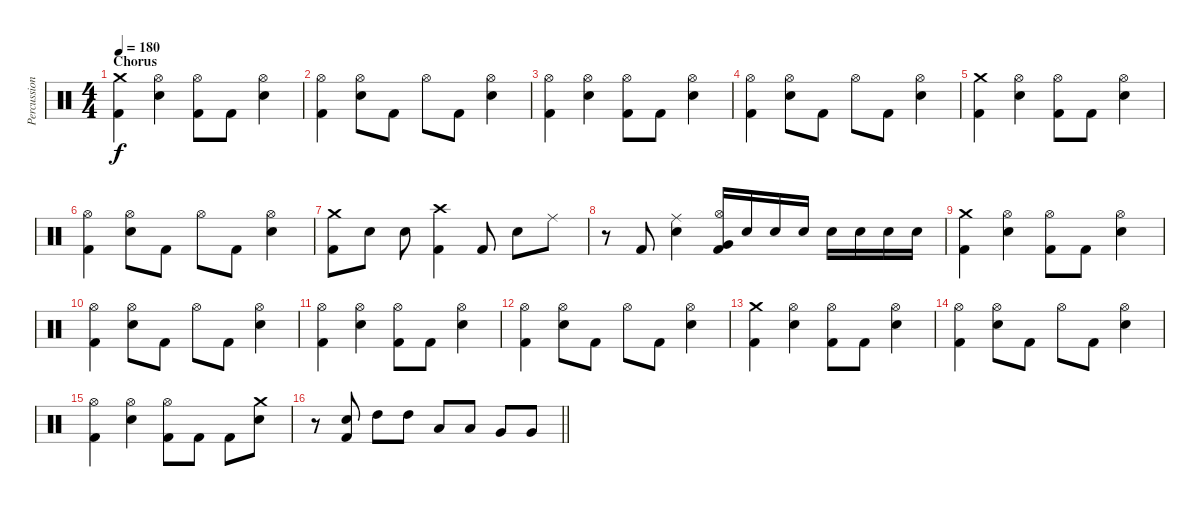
\track ("Percussion" "Percussion") {instrument percussion}
\staff {score}
\articulation defaults
\ts (4 4)
\section ("" "Chorus")
\tempo 180
\clef neutral
\ks c
("Crash medium (hit)" "Kick (hit) 2").4{dy f} ("Hi-Hat (open)" "Snare (hit) 2").4 ("Hi-Hat (open)" "Kick (hit) 2").8 "Kick (hit) 2".8 ("Hi-Hat (open)" "Snare (hit) 2").4 |
("Hi-Hat (open)" "Kick (hit) 2").4 ("Hi-Hat (open)" "Snare (hit) 2").8 "Kick (hit) 2".8 "Hi-Hat (open)".8 "Kick (hit) 2".8 ("Hi-Hat (open)" "Snare (hit) 2").4 |
("Hi-Hat (open)" "Kick (hit) 2").4 ("Hi-Hat (open)" "Snare (hit) 2").4 ("Hi-Hat (open)" "Kick (hit) 2").8 "Kick (hit) 2".8 ("Hi-Hat (open)" "Snare (hit) 2").4 |
("Hi-Hat (open)" "Kick (hit) 2").4 ("Hi-Hat (open)" "Snare (hit) 2").8 "Kick (hit) 2".8 "Hi-Hat (open)".8 "Kick (hit) 2".8 ("Hi-Hat (open)" "Snare (hit) 2").4 |
("Crash medium (hit)" "Kick (hit) 2").4 ("Hi-Hat (open)" "Snare (hit) 2").4 ("Hi-Hat (open)" "Kick (hit) 2").8 "Kick (hit) 2".8 ("Hi-Hat (open)" "Snare (hit) 2").4 |
("Hi-Hat (open)" "Kick (hit) 2").4 ("Hi-Hat (open)" "Snare (hit) 2").8 "Kick (hit) 2".8 "Hi-Hat (open)".8 "Kick (hit) 2".8 ("Hi-Hat (open)" "Snare (hit) 2").4 |
("Crash medium (hit)" "Kick (hit) 2").8 "Snare (hit) 2".8 "Snare (hit) 2".8 ("Crash high (hit)" "Kick (hit) 2").4 "Kick (hit) 2".8 "Snare (hit) 2".8 "Ride (middle)".8 |
r.8 "Kick (hit) 2".8 ("Ride (middle)" "Snare (hit) 2").4 ("Hi-Hat (open)" "Very Low Tom (hit)" "Kick (hit) 2").16 "Snare (hit) 2".16 "Snare (hit) 2".16 "Snare (hit) 2".16 "Snare (hit) 2".16 "Snare (hit) 2".16 "Snare (hit) 2".16 "Snare (hit) 2".16 |
("Crash medium (hit)" "Kick (hit) 2").4 ("Hi-Hat (open)" "Snare (hit) 2").4 ("Hi-Hat (open)" "Kick (hit) 2").8 "Kick (hit) 2".8 ("Hi-Hat (open)" "Snare (hit) 2").4 |
("Hi-Hat (open)" "Kick (hit) 2").4 ("Hi-Hat (open)" "Snare (hit) 2").8 "Kick (hit) 2".8 "Hi-Hat (open)".8 "Kick (hit) 2".8 ("Hi-Hat (open)" "Snare (hit) 2").4 |
("Hi-Hat (open)" "Kick (hit) 2").4 ("Hi-Hat (open)" "Snare (hit) 2").4 ("Hi-Hat (open)" "Kick (hit) 2").8 "Kick (hit) 2".8 ("Hi-Hat (open)" "Snare (hit) 2").4 |
("Hi-Hat (open)" "Kick (hit) 2").4 ("Hi-Hat (open)" "Snare (hit) 2").8 "Kick (hit) 2".8 "Hi-Hat (open)".8 "Kick (hit) 2".8 ("Hi-Hat (open)" "Snare (hit) 2").4 |
("Crash medium (hit)" "Kick (hit) 2").4 ("Hi-Hat (open)" "Snare (hit) 2").4 ("Hi-Hat (open)" "Kick (hit) 2").8 "Kick (hit) 2".8 ("Hi-Hat (open)" "Snare (hit) 2").4 |
("Hi-Hat (open)" "Kick (hit) 2").4 ("Hi-Hat (open)" "Snare (hit) 2").8 "Kick (hit) 2".8 "Hi-Hat (open)".8 "Kick (hit) 2".8 ("Hi-Hat (open)" "Snare (hit) 2").4 |
("Hi-Hat (open)" "Kick (hit) 2").4 ("Hi-Hat (open)" "Snare (hit) 2").4 ("Hi-Hat (open)" "Kick (hit) 2").8 "Kick (hit) 2".8 "Kick (hit) 2".8 ("Crash medium (hit)" "Snare (hit) 2").8 |
\barLineRight lightlight
r.8 ("Snare (hit) 2" "Kick (hit) 2").8 "High Tom (hit)".8 "High Tom (hit)".8 "Low Tom (hit)".8 "Low Tom (hit)".8 "Very Low Tom (hit)".8 "Very Low Tom (hit)".8
